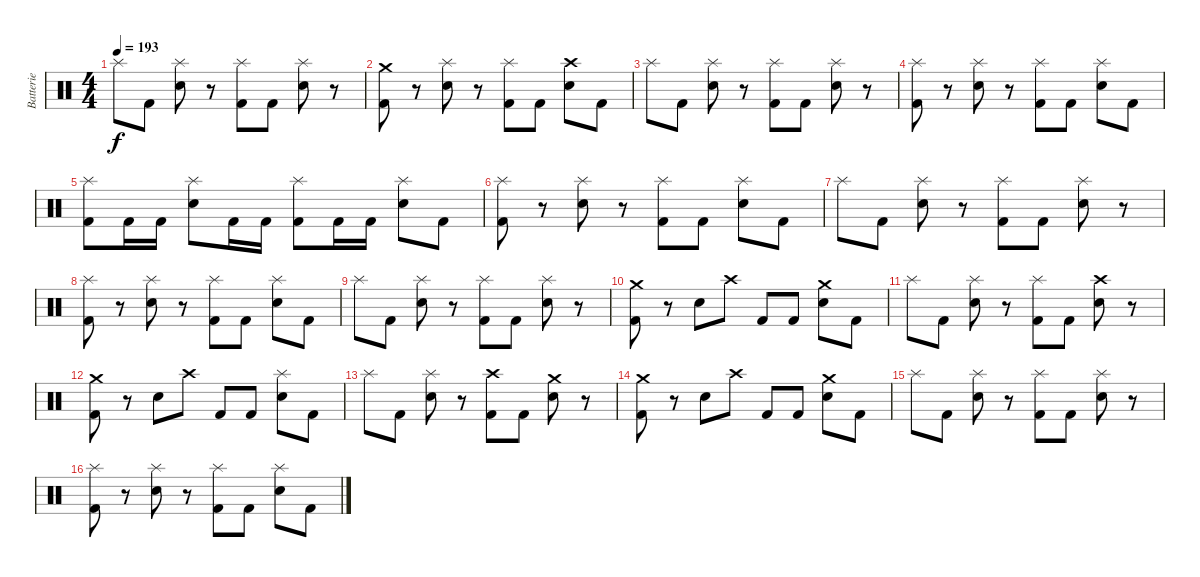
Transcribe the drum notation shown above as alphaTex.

\track ("Batterie" "Batterie") {instrument percussion}
\staff {score}
\articulation defaults
\ts (4 4)
\tempo 193
\clef neutral
\ks c "Splash (hit)".8{dy f} "Kick (hit) 2".8
("Electric Snare (hit)" "Splash (hit)").8 r.8 ("Kick (hit) 2" "Splash (hit)").8 "Kick (hit) 2".8 ("Electric Snare (hit)" "Splash (hit)").8 r.8 |
("Kick (hit) 2" "Crash medium (hit)").8 r.8 ("Electric Snare (hit)" "Splash (hit)").8 r.8 ("Kick (hit) 2" "Splash (hit)").8 "Kick (hit) 2".8 ("Electric Snare (hit)" "Crash high (hit)").8 "Kick (hit) 2".8 |
"Splash (hit)".8 "Kick (hit) 2".8 ("Electric Snare (hit)" "Splash (hit)").8 r.8 ("Kick (hit) 2" "Splash (hit)").8 "Kick (hit) 2".8 ("Electric Snare (hit)" "Splash (hit)").8 r.8 |
("Kick (hit) 2" "Splash (hit)").8 r.8 ("Electric Snare (hit)" "Splash (hit)").8 r.8 ("Kick (hit) 2" "Splash (hit)").8 "Kick (hit) 2".8 ("Electric Snare (hit)" "Splash (hit)").8 "Kick (hit) 2".8 |
("Kick (hit) 2" "Splash (hit)").8 "Kick (hit) 2".16 "Kick (hit) 2".16 ("Electric Snare (hit)" "Splash (hit)").8 "Kick (hit) 2".16 "Kick (hit) 2".16 ("Kick (hit) 2" "Splash (hit)").8 "Kick (hit) 2".16 "Kick (hit) 2".16 ("Electric Snare (hit)" "Splash (hit)").8 "Kick (hit) 2".8 |
("Kick (hit) 2" "Splash (hit)").8 r.8 ("Electric Snare (hit)" "Splash (hit)").8 r.8 ("Kick (hit) 2" "Splash (hit)").8 "Kick (hit) 2".8 ("Electric Snare (hit)" "Splash (hit)").8 "Kick (hit) 2".8 |
"Splash (hit)".8 "Kick (hit) 2".8 ("Electric Snare (hit)" "Splash (hit)").8 r.8 ("Kick (hit) 2" "Splash (hit)").8 "Kick (hit) 2".8 ("Electric Snare (hit)" "Splash (hit)").8 r.8 |
("Kick (hit) 2" "Splash (hit)").8 r.8 ("Electric Snare (hit)" "Splash (hit)").8 r.8 ("Kick (hit) 2" "Splash (hit)").8 "Kick (hit) 2".8 ("Electric Snare (hit)" "Splash (hit)").8 "Kick (hit) 2".8 |
"Splash (hit)".8 "Kick (hit) 2".8 ("Electric Snare (hit)" "Splash (hit)").8 r.8 ("Kick (hit) 2" "Splash (hit)").8 "Kick (hit) 2".8 ("Electric Snare (hit)" "Splash (hit)").8 r.8 |
("Kick (hit) 2" "Crash medium (hit)").8 r.8 "Electric Snare (hit)".8 "Crash high (hit)".8 "Kick (hit) 2".8 "Kick (hit) 2".8 ("Electric Snare (hit)" "Crash medium (hit)").8 "Kick (hit) 2".8 |
"Splash (hit)".8 "Kick (hit) 2".8 ("Electric Snare (hit)" "Splash (hit)").8 r.8 ("Kick (hit) 2" "Splash (hit)").8 "Kick (hit) 2".8 ("Electric Snare (hit)" "Crash high (hit)").8 r.8 |
("Kick (hit) 2" "Crash medium (hit)").8 r.8 "Electric Snare (hit)".8 "Crash high (hit)".8 "Kick (hit) 2".8 "Kick (hit) 2".8 ("Electric Snare (hit)" "Splash (hit)").8 "Kick (hit) 2".8 |
"Splash (hit)".8 "Kick (hit) 2".8 ("Electric Snare (hit)" "Splash (hit)").8 r.8 ("Kick (hit) 2" "Crash high (hit)").8 "Kick (hit) 2".8 ("Electric Snare (hit)" "Crash medium (hit)").8 r.8 |
("Kick (hit) 2" "Crash medium (hit)").8 r.8 "Electric Snare (hit)".8 "Crash high (hit)".8 "Kick (hit) 2".8 "Kick (hit) 2".8 ("Electric Snare (hit)" "Crash medium (hit)").8 "Kick (hit) 2".8 |
"Splash (hit)".8 "Kick (hit) 2".8 ("Electric Snare (hit)" "Splash (hit)").8 r.8 ("Kick (hit) 2" "Splash (hit)").8 "Kick (hit) 2".8 ("Electric Snare (hit)" "Splash (hit)").8 r.8 |
("Kick (hit) 2" "Splash (hit)").8 r.8 ("Electric Snare (hit)" "Splash (hit)").8 r.8 ("Kick (hit) 2" "Splash (hit)").8 "Kick (hit) 2".8 ("Electric Snare (hit)" "Splash (hit)").8 "Kick (hit) 2".8
